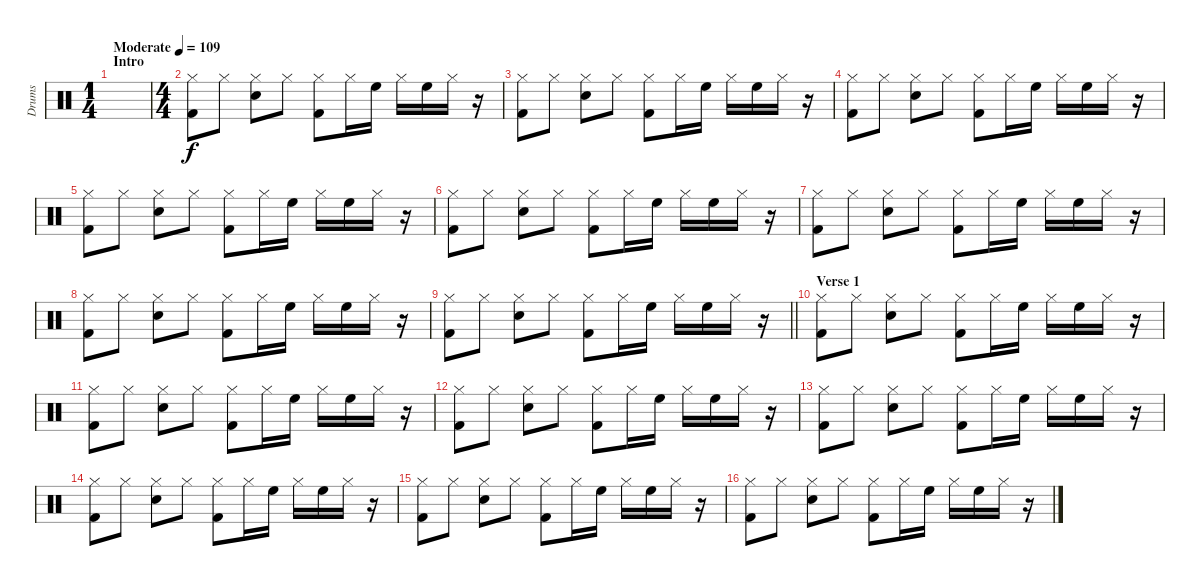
\track ("Drums" "Drums") {instrument percussion}
\staff {score}
\articulation defaults
\ts (1 4)
\section ("" "Intro")
\tempo (109 "Moderate")
\clef neutral
\ks c
|
\ts (4 4)
("Hi-Hat (closed)" "Kick (hit) 2").8 "Hi-Hat (closed)".8 ("Hi-Hat (closed)" "Electric Snare (hit)").8 "Hi-Hat (closed)".8 ("Hi-Hat (closed)" "Kick (hit) 2").8 "Hi-Hat (closed)".16 "High Floor Tom (hit)".16 "Hi-Hat (closed)".16 "High Floor Tom (hit)".16 "Hi-Hat (closed)".16 r.16 |
("Hi-Hat (closed)" "Kick (hit) 2").8 "Hi-Hat (closed)".8 ("Hi-Hat (closed)" "Electric Snare (hit)").8 "Hi-Hat (closed)".8 ("Hi-Hat (closed)" "Kick (hit) 2").8 "Hi-Hat (closed)".16 "High Floor Tom (hit)".16 "Hi-Hat (closed)".16 "High Floor Tom (hit)".16 "Hi-Hat (closed)".16 r.16 |
("Hi-Hat (closed)" "Kick (hit) 2").8 "Hi-Hat (closed)".8 ("Hi-Hat (closed)" "Electric Snare (hit)").8 "Hi-Hat (closed)".8 ("Hi-Hat (closed)" "Kick (hit) 2").8 "Hi-Hat (closed)".16 "High Floor Tom (hit)".16 "Hi-Hat (closed)".16 "High Floor Tom (hit)".16 "Hi-Hat (closed)".16 r.16 |
("Hi-Hat (closed)" "Kick (hit) 2").8 "Hi-Hat (closed)".8 ("Hi-Hat (closed)" "Electric Snare (hit)").8 "Hi-Hat (closed)".8 ("Hi-Hat (closed)" "Kick (hit) 2").8 "Hi-Hat (closed)".16 "High Floor Tom (hit)".16 "Hi-Hat (closed)".16 "High Floor Tom (hit)".16 "Hi-Hat (closed)".16 r.16 |
("Hi-Hat (closed)" "Kick (hit) 2").8 "Hi-Hat (closed)".8 ("Hi-Hat (closed)" "Electric Snare (hit)").8 "Hi-Hat (closed)".8 ("Hi-Hat (closed)" "Kick (hit) 2").8 "Hi-Hat (closed)".16 "High Floor Tom (hit)".16 "Hi-Hat (closed)".16 "High Floor Tom (hit)".16 "Hi-Hat (closed)".16 r.16 |
("Hi-Hat (closed)" "Kick (hit) 2").8 "Hi-Hat (closed)".8 ("Hi-Hat (closed)" "Electric Snare (hit)").8 "Hi-Hat (closed)".8 ("Hi-Hat (closed)" "Kick (hit) 2").8 "Hi-Hat (closed)".16 "High Floor Tom (hit)".16 "Hi-Hat (closed)".16 "High Floor Tom (hit)".16 "Hi-Hat (closed)".16 r.16 |
("Hi-Hat (closed)" "Kick (hit) 2").8 "Hi-Hat (closed)".8 ("Hi-Hat (closed)" "Electric Snare (hit)").8 "Hi-Hat (closed)".8 ("Hi-Hat (closed)" "Kick (hit) 2").8 "Hi-Hat (closed)".16 "High Floor Tom (hit)".16 "Hi-Hat (closed)".16 "High Floor Tom (hit)".16 "Hi-Hat (closed)".16 r.16 |
\barLineRight lightlight
("Hi-Hat (closed)" "Kick (hit) 2").8 "Hi-Hat (closed)".8 ("Hi-Hat (closed)" "Electric Snare (hit)").8 "Hi-Hat (closed)".8 ("Hi-Hat (closed)" "Kick (hit) 2").8 "Hi-Hat (closed)".16 "High Floor Tom (hit)".16 "Hi-Hat (closed)".16 "High Floor Tom (hit)".16 "Hi-Hat (closed)".16 r.16 |
\section ("" "Verse 1")
("Hi-Hat (closed)" "Kick (hit) 2").8 "Hi-Hat (closed)".8 ("Hi-Hat (closed)" "Electric Snare (hit)").8 "Hi-Hat (closed)".8 ("Hi-Hat (closed)" "Kick (hit) 2").8 "Hi-Hat (closed)".16 "High Floor Tom (hit)".16 "Hi-Hat (closed)".16 "High Floor Tom (hit)".16 "Hi-Hat (closed)".16 r.16 |
("Hi-Hat (closed)" "Kick (hit) 2").8 "Hi-Hat (closed)".8 ("Hi-Hat (closed)" "Electric Snare (hit)").8 "Hi-Hat (closed)".8 ("Hi-Hat (closed)" "Kick (hit) 2").8 "Hi-Hat (closed)".16 "High Floor Tom (hit)".16 "Hi-Hat (closed)".16 "High Floor Tom (hit)".16 "Hi-Hat (closed)".16 r.16 |
("Hi-Hat (closed)" "Kick (hit) 2").8 "Hi-Hat (closed)".8 ("Hi-Hat (closed)" "Electric Snare (hit)").8 "Hi-Hat (closed)".8 ("Hi-Hat (closed)" "Kick (hit) 2").8 "Hi-Hat (closed)".16 "High Floor Tom (hit)".16 "Hi-Hat (closed)".16 "High Floor Tom (hit)".16 "Hi-Hat (closed)".16 r.16 |
("Hi-Hat (closed)" "Kick (hit) 2").8 "Hi-Hat (closed)".8 ("Hi-Hat (closed)" "Electric Snare (hit)").8 "Hi-Hat (closed)".8 ("Hi-Hat (closed)" "Kick (hit) 2").8 "Hi-Hat (closed)".16 "High Floor Tom (hit)".16 "Hi-Hat (closed)".16 "High Floor Tom (hit)".16 "Hi-Hat (closed)".16 r.16 |
("Hi-Hat (closed)" "Kick (hit) 2").8 "Hi-Hat (closed)".8 ("Hi-Hat (closed)" "Electric Snare (hit)").8 "Hi-Hat (closed)".8 ("Hi-Hat (closed)" "Kick (hit) 2").8 "Hi-Hat (closed)".16 "High Floor Tom (hit)".16 "Hi-Hat (closed)".16 "High Floor Tom (hit)".16 "Hi-Hat (closed)".16 r.16 |
("Hi-Hat (closed)" "Kick (hit) 2").8 "Hi-Hat (closed)".8 ("Hi-Hat (closed)" "Electric Snare (hit)").8 "Hi-Hat (closed)".8 ("Hi-Hat (closed)" "Kick (hit) 2").8 "Hi-Hat (closed)".16 "High Floor Tom (hit)".16 "Hi-Hat (closed)".16 "High Floor Tom (hit)".16 "Hi-Hat (closed)".16 r.16 |
("Hi-Hat (closed)" "Kick (hit) 2").8 "Hi-Hat (closed)".8 ("Hi-Hat (closed)" "Electric Snare (hit)").8 "Hi-Hat (closed)".8 ("Hi-Hat (closed)" "Kick (hit) 2").8 "Hi-Hat (closed)".16 "High Floor Tom (hit)".16 "Hi-Hat (closed)".16 "High Floor Tom (hit)".16 "Hi-Hat (closed)".16 r.16
